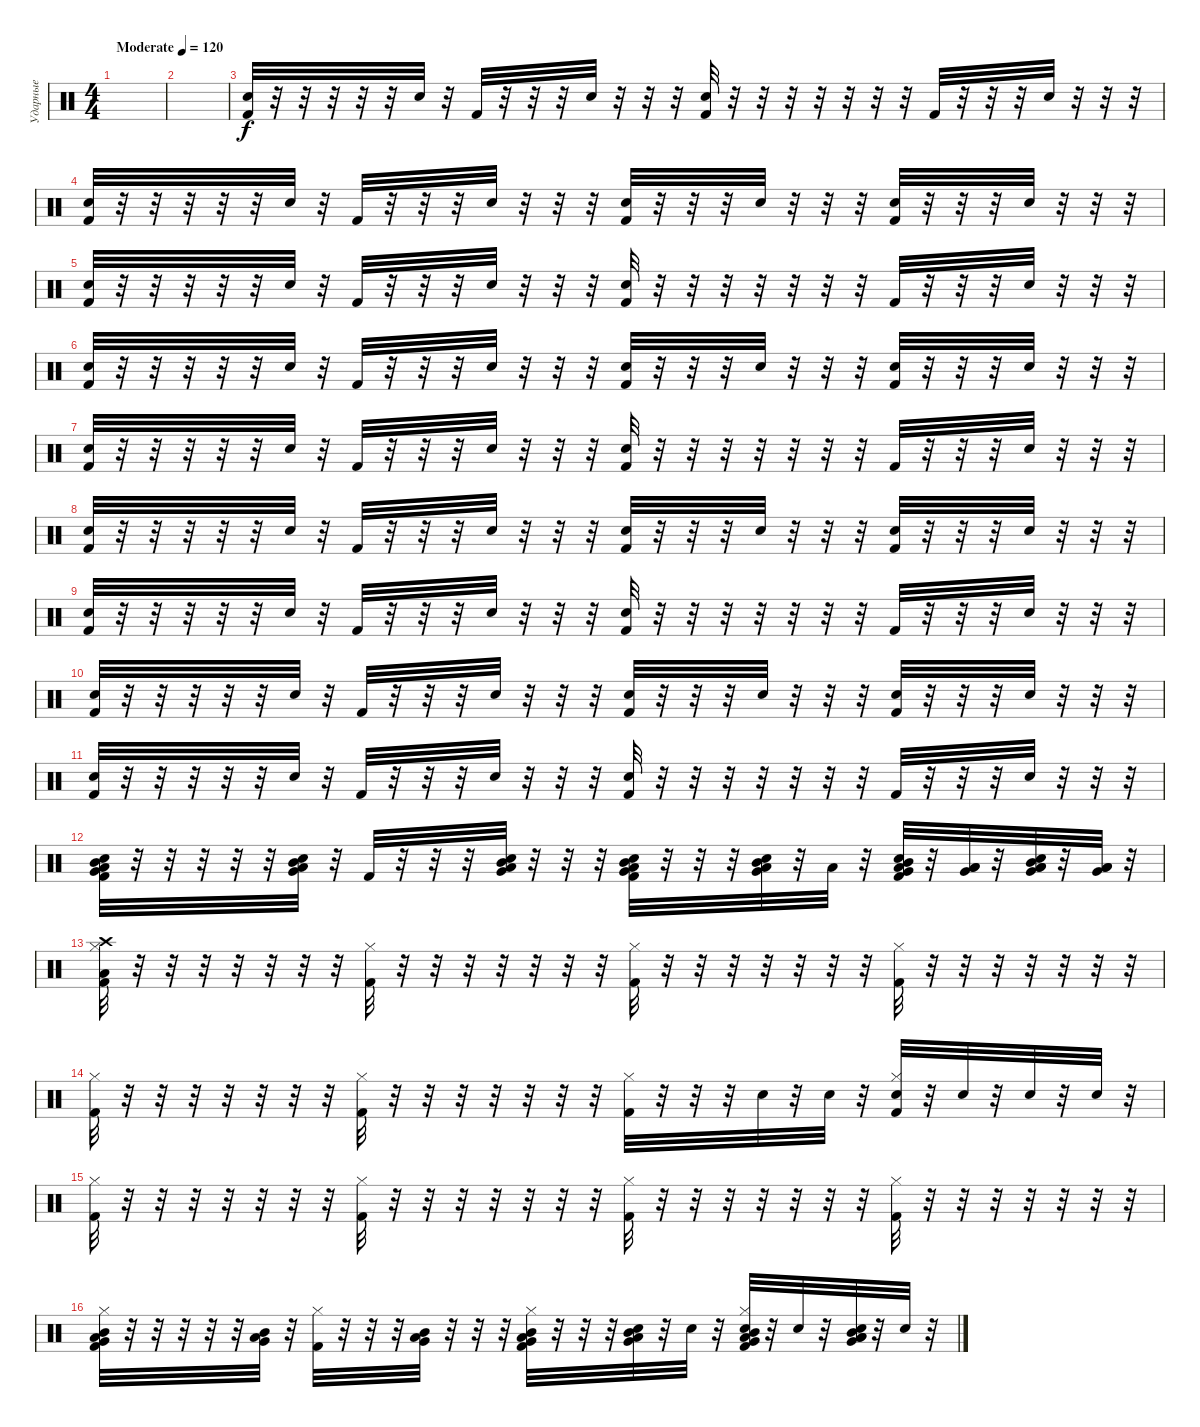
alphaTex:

\track ("Ударные" "Ударные") {instrument percussion}
\staff {score}
\articulation defaults
\ts (4 4)
\tempo (120 "Moderate")
\clef neutral
\ks c
|
|
("Hand Clap (hit)" "Kick (hit) 2").32 r.32 r.32 r.32 r.32 r.32 "Hand Clap (hit)".32 r.32 "Kick (hit) 2".32 r.32 r.32 r.32 "Hand Clap (hit)".32 r.32 r.32 r.32 ("Hand Clap (hit)" "Kick (hit) 2").32 r.32 r.32 r.32 r.32 r.32 r.32 r.32 "Kick (hit) 2".32 r.32 r.32 r.32 "Hand Clap (hit)".32 r.32 r.32 r.32 |
("Hand Clap (hit)" "Kick (hit) 2").32 r.32 r.32 r.32 r.32 r.32 "Hand Clap (hit)".32 r.32 "Kick (hit) 2".32 r.32 r.32 r.32 "Hand Clap (hit)".32 r.32 r.32 r.32 ("Hand Clap (hit)" "Kick (hit) 2").32 r.32 r.32 r.32 "Hand Clap (hit)".32 r.32 r.32 r.32 ("Hand Clap (hit)" "Kick (hit) 2").32 r.32 r.32 r.32 "Hand Clap (hit)".32 r.32 r.32 r.32 |
("Hand Clap (hit)" "Kick (hit) 2").32 r.32 r.32 r.32 r.32 r.32 "Hand Clap (hit)".32 r.32 "Kick (hit) 2".32 r.32 r.32 r.32 "Hand Clap (hit)".32 r.32 r.32 r.32 ("Hand Clap (hit)" "Kick (hit) 2").32 r.32 r.32 r.32 r.32 r.32 r.32 r.32 "Kick (hit) 2".32 r.32 r.32 r.32 "Hand Clap (hit)".32 r.32 r.32 r.32 |
("Hand Clap (hit)" "Kick (hit) 2").32 r.32 r.32 r.32 r.32 r.32 "Hand Clap (hit)".32 r.32 "Kick (hit) 2".32 r.32 r.32 r.32 "Hand Clap (hit)".32 r.32 r.32 r.32 ("Hand Clap (hit)" "Kick (hit) 2").32 r.32 r.32 r.32 "Hand Clap (hit)".32 r.32 r.32 r.32 ("Hand Clap (hit)" "Kick (hit) 2").32 r.32 r.32 r.32 "Hand Clap (hit)".32 r.32 r.32 r.32 |
("Hand Clap (hit)" "Kick (hit) 2").32 r.32 r.32 r.32 r.32 r.32 "Hand Clap (hit)".32 r.32 "Kick (hit) 2".32 r.32 r.32 r.32 "Hand Clap (hit)".32 r.32 r.32 r.32 ("Hand Clap (hit)" "Kick (hit) 2").32 r.32 r.32 r.32 r.32 r.32 r.32 r.32 "Kick (hit) 2".32 r.32 r.32 r.32 "Hand Clap (hit)".32 r.32 r.32 r.32 |
("Hand Clap (hit)" "Kick (hit) 2").32 r.32 r.32 r.32 r.32 r.32 "Hand Clap (hit)".32 r.32 "Kick (hit) 2".32 r.32 r.32 r.32 "Hand Clap (hit)".32 r.32 r.32 r.32 ("Hand Clap (hit)" "Kick (hit) 2").32 r.32 r.32 r.32 "Hand Clap (hit)".32 r.32 r.32 r.32 ("Hand Clap (hit)" "Kick (hit) 2").32 r.32 r.32 r.32 "Hand Clap (hit)".32 r.32 r.32 r.32 |
("Hand Clap (hit)" "Kick (hit) 2").32 r.32 r.32 r.32 r.32 r.32 "Hand Clap (hit)".32 r.32 "Kick (hit) 2".32 r.32 r.32 r.32 "Hand Clap (hit)".32 r.32 r.32 r.32 ("Hand Clap (hit)" "Kick (hit) 2").32 r.32 r.32 r.32 r.32 r.32 r.32 r.32 "Kick (hit) 2".32 r.32 r.32 r.32 "Hand Clap (hit)".32 r.32 r.32 r.32 |
("Hand Clap (hit)" "Kick (hit) 2").32 r.32 r.32 r.32 r.32 r.32 "Hand Clap (hit)".32 r.32 "Kick (hit) 2".32 r.32 r.32 r.32 "Hand Clap (hit)".32 r.32 r.32 r.32 ("Hand Clap (hit)" "Kick (hit) 2").32 r.32 r.32 r.32 "Hand Clap (hit)".32 r.32 r.32 r.32 ("Hand Clap (hit)" "Kick (hit) 2").32 r.32 r.32 r.32 "Hand Clap (hit)".32 r.32 r.32 r.32 |
("Hand Clap (hit)" "Kick (hit) 2").32 r.32 r.32 r.32 r.32 r.32 "Hand Clap (hit)".32 r.32 "Kick (hit) 2".32 r.32 r.32 r.32 "Hand Clap (hit)".32 r.32 r.32 r.32 ("Hand Clap (hit)" "Kick (hit) 2").32 r.32 r.32 r.32 r.32 r.32 r.32 r.32 "Kick (hit) 2".32 r.32 r.32 r.32 "Hand Clap (hit)".32 r.32 r.32 r.32 |
("Very Low Tom (hit)" "Hand Clap (hit)" "Kick (hit) 2" "Low Tom (hit)" "Mid Tom (hit)").32 r.32 r.32 r.32 r.32 r.32 ("Very Low Tom (hit)" "Hand Clap (hit)" "Low Tom (hit)" "Mid Tom (hit)").32 r.32 "Kick (hit) 2".32 r.32 r.32 r.32 ("Very Low Tom (hit)" "Hand Clap (hit)" "Low Tom (hit)" "Mid Tom (hit)").32 r.32 r.32 r.32 ("Very Low Tom (hit)" "Hand Clap (hit)" "Kick (hit) 2" "Mid Tom (hit)" "Low Tom (hit)").32 r.32 r.32 r.32 ("Very Low Tom (hit)" "Hand Clap (hit)" "Mid Tom (hit)" "Low Tom (hit)").32 r.32 "Low Floor Tom (hit)".32 r.32 ("Very Low Tom (hit)" "Hand Clap (hit)" "Kick (hit) 2" "Mid Tom (hit)" "Low Tom (hit)").32 r.32 ("Very Low Tom (hit)" "Low Floor Tom (hit)" "Low Floor Tom (hit)").32 r.32 ("Very Low Tom (hit)" "Hand Clap (hit)" "Mid Tom (hit)" "Low Tom (hit)" "Low Tom (hit)").32 r.32 ("Very Low Tom (hit)" "Low Floor Tom (hit)" "Low Floor Tom (hit)").32 r.32 |
("Crash high (hit)" "Hi-Hat (closed)" "Kick (hit) 2" "Low Floor Tom (hit)").32 r.32 r.32 r.32 r.32 r.32 r.32 r.32 ("Hi-Hat (closed)" "Kick (hit) 2").32 r.32 r.32 r.32 r.32 r.32 r.32 r.32 ("Hi-Hat (closed)" "Kick (hit) 2").32 r.32 r.32 r.32 r.32 r.32 r.32 r.32 ("Kick (hit) 2" "Hi-Hat (closed)").32 r.32 r.32 r.32 r.32 r.32 r.32 r.32 |
("Hi-Hat (closed)" "Kick (hit) 2").32 r.32 r.32 r.32 r.32 r.32 r.32 r.32 ("Hi-Hat (closed)" "Kick (hit) 2").32 r.32 r.32 r.32 r.32 r.32 r.32 r.32 ("Hi-Hat (closed)" "Kick (hit) 2").32 r.32 r.32 r.32 "Snare (hit) 2".32 r.32 "Snare (hit) 2".32 r.32 ("Snare (hit) 2" "Kick (hit) 2" "Hi-Hat (closed)").32 r.32 "Snare (hit) 2".32 r.32 "Snare (hit) 2".32 r.32 "Snare (hit) 2".32 r.32 |
("Hi-Hat (closed)" "Kick (hit) 2").32 r.32 r.32 r.32 r.32 r.32 r.32 r.32 ("Hi-Hat (closed)" "Kick (hit) 2").32 r.32 r.32 r.32 r.32 r.32 r.32 r.32 ("Hi-Hat (closed)" "Kick (hit) 2").32 r.32 r.32 r.32 r.32 r.32 r.32 r.32 ("Kick (hit) 2" "Hi-Hat (closed)").32 r.32 r.32 r.32 r.32 r.32 r.32 r.32 |
("Very Low Tom (hit)" "Hi-Hat (closed)" "Kick (hit) 2" "Low Tom (hit)" "Mid Tom (hit)").32 r.32 r.32 r.32 r.32 r.32 ("Very Low Tom (hit)" "Low Tom (hit)" "Mid Tom (hit)").32 r.32 ("Hi-Hat (closed)" "Kick (hit) 2").32 r.32 r.32 r.32 ("Very Low Tom (hit)" "Low Tom (hit)" "Mid Tom (hit)").32 r.32 r.32 r.32 ("Very Low Tom (hit)" "Hi-Hat (closed)" "Kick (hit) 2" "Mid Tom (hit)" "Low Tom (hit)").32 r.32 r.32 r.32 ("Very Low Tom (hit)" "Snare (hit) 2" "Mid Tom (hit)" "Low Tom (hit)").32 r.32 "Snare (hit) 2".32 r.32 ("Very Low Tom (hit)" "Snare (hit) 2" "Hi-Hat (closed)" "Kick (hit) 2" "Mid Tom (hit)" "Low Tom (hit)").32 r.32 "Snare (hit) 2".32 r.32 ("Very Low Tom (hit)" "Snare (hit) 2" "Mid Tom (hit)" "Low Tom (hit)" "Low Tom (hit)").32 r.32 "Snare (hit) 2".32 r.32
